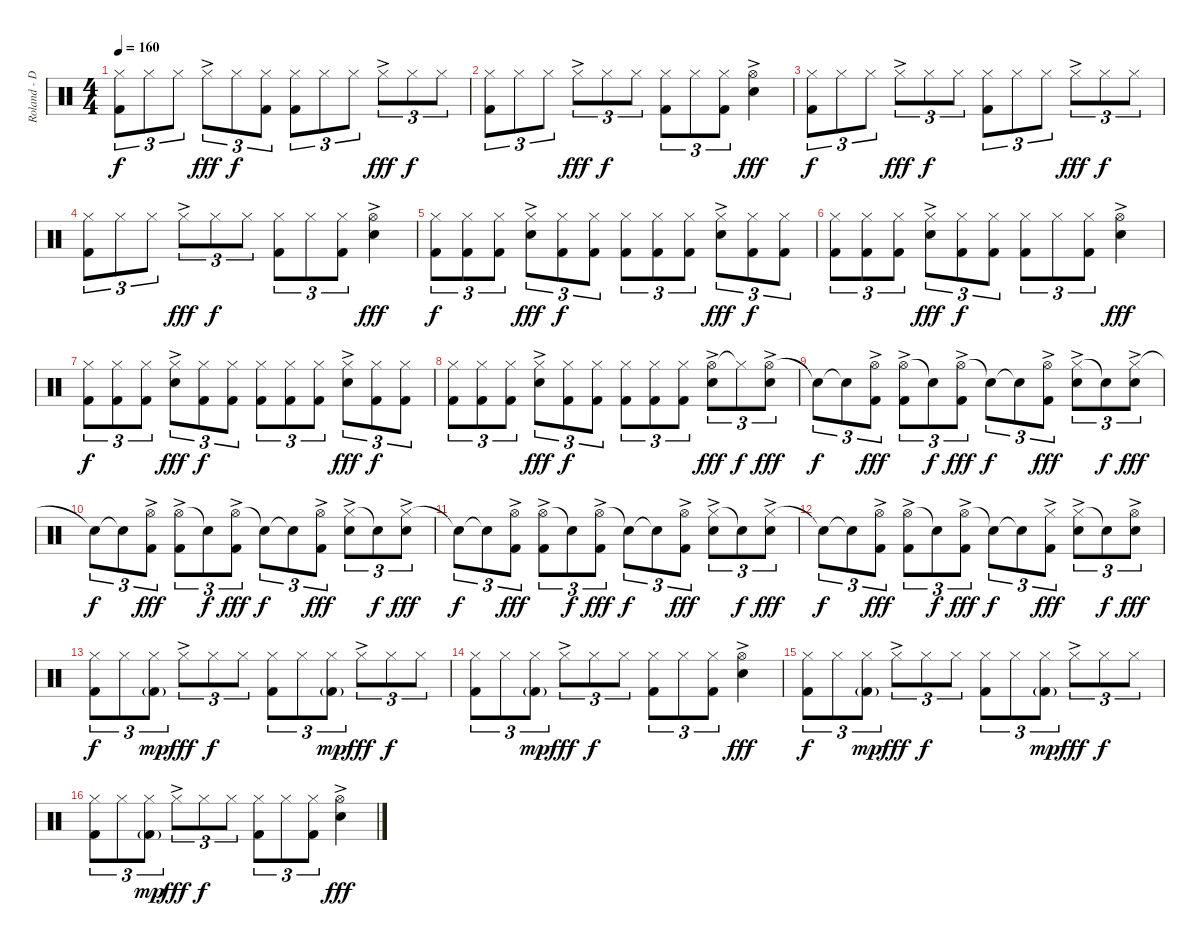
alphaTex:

\track ("Roland - Drums" "Roland - D") {instrument percussion}
\staff {score}
\articulation defaults
\ts (4 4)
\tempo 160
\clef neutral
\ks c
("Hi-Hat (closed)" "Kick (hit) 2").8{tu (3 2) dy f} "Hi-Hat (closed)".8{tu (3 2)} "Hi-Hat (closed)".8{tu (3 2)} "Hi-Hat (closed)"{ac}.8{tu (3 2) dy fff} "Hi-Hat (closed)".8{tu (3 2) dy f} ("Hi-Hat (closed)" "Kick (hit) 2").8{tu (3 2)} ("Hi-Hat (closed)" "Kick (hit) 2").8{tu (3 2)} "Hi-Hat (closed)".8{tu (3 2)} "Hi-Hat (closed)".8{tu (3 2)} "Hi-Hat (closed)"{ac}.8{tu (3 2) dy fff} "Hi-Hat (closed)".8{tu (3 2) dy f} "Hi-Hat (closed)".8{tu (3 2)} |
("Hi-Hat (closed)" "Kick (hit) 2").8{tu (3 2)} "Hi-Hat (closed)".8{tu (3 2)} "Hi-Hat (closed)".8{tu (3 2)} "Hi-Hat (closed)"{ac}.8{tu (3 2) dy fff} "Hi-Hat (closed)".8{tu (3 2) dy f} "Hi-Hat (closed)".8{tu (3 2)} ("Hi-Hat (closed)" "Kick (hit) 2").8{tu (3 2)} "Hi-Hat (closed)".8{tu (3 2)} ("Hi-Hat (closed)" "Kick (hit) 2").8{tu (3 2)} ("Hi-Hat (open)"{ac} "Snare (hit) 2").4{dy fff} |
("Hi-Hat (closed)" "Kick (hit) 2").8{tu (3 2) dy f} "Hi-Hat (closed)".8{tu (3 2)} "Hi-Hat (closed)".8{tu (3 2)} "Hi-Hat (closed)"{ac}.8{tu (3 2) dy fff} "Hi-Hat (closed)".8{tu (3 2) dy f} "Hi-Hat (closed)".8{tu (3 2)} ("Hi-Hat (closed)" "Kick (hit) 2").8{tu (3 2)} "Hi-Hat (closed)".8{tu (3 2)} "Hi-Hat (closed)".8{tu (3 2)} "Hi-Hat (closed)"{ac}.8{tu (3 2) dy fff} "Hi-Hat (closed)".8{tu (3 2) dy f} "Hi-Hat (closed)".8{tu (3 2)} |
("Hi-Hat (closed)" "Kick (hit) 2").8{tu (3 2)} "Hi-Hat (closed)".8{tu (3 2)} "Hi-Hat (closed)".8{tu (3 2)} "Hi-Hat (closed)"{ac}.8{tu (3 2) dy fff} "Hi-Hat (closed)".8{tu (3 2) dy f} "Hi-Hat (closed)".8{tu (3 2)} ("Hi-Hat (closed)" "Kick (hit) 2").8{tu (3 2)} "Hi-Hat (closed)".8{tu (3 2)} ("Hi-Hat (closed)" "Kick (hit) 2").8{tu (3 2)} ("Hi-Hat (open)"{ac} "Snare (hit) 2").4{dy fff} |
("Hi-Hat (closed)" "Kick (hit) 2").8{tu (3 2) dy f} ("Hi-Hat (closed)" "Kick (hit) 2").8{tu (3 2)} ("Hi-Hat (closed)" "Kick (hit) 2").8{tu (3 2)} ("Hi-Hat (closed)"{ac} "Snare (hit) 2").8{tu (3 2) dy fff} ("Hi-Hat (closed)" "Kick (hit) 2").8{tu (3 2) dy f} ("Hi-Hat (closed)" "Kick (hit) 2").8{tu (3 2)} ("Hi-Hat (closed)" "Kick (hit) 2").8{tu (3 2)} ("Hi-Hat (closed)" "Kick (hit) 2").8{tu (3 2)} ("Hi-Hat (closed)" "Kick (hit) 2").8{tu (3 2)} ("Hi-Hat (closed)"{ac} "Snare (hit) 2").8{tu (3 2) dy fff} ("Hi-Hat (closed)" "Kick (hit) 2").8{tu (3 2) dy f} ("Hi-Hat (closed)" "Kick (hit) 2").8{tu (3 2)} |
("Hi-Hat (closed)" "Kick (hit) 2").8{tu (3 2)} ("Hi-Hat (closed)" "Kick (hit) 2").8{tu (3 2)} ("Hi-Hat (closed)" "Kick (hit) 2").8{tu (3 2)} ("Hi-Hat (closed)"{ac} "Snare (hit) 2").8{tu (3 2) dy fff} ("Hi-Hat (closed)" "Kick (hit) 2").8{tu (3 2) dy f} ("Hi-Hat (closed)" "Kick (hit) 2").8{tu (3 2)} ("Hi-Hat (closed)" "Kick (hit) 2").8{tu (3 2)} "Hi-Hat (closed)".8{tu (3 2)} ("Hi-Hat (closed)" "Kick (hit) 2").8{tu (3 2)} ("Hi-Hat (open)"{ac} "Snare (hit) 2").4{dy fff} |
("Hi-Hat (closed)" "Kick (hit) 2").8{tu (3 2) dy f} ("Hi-Hat (closed)" "Kick (hit) 2").8{tu (3 2)} ("Hi-Hat (closed)" "Kick (hit) 2").8{tu (3 2)} ("Hi-Hat (closed)"{ac} "Snare (hit) 2").8{tu (3 2) dy fff} ("Hi-Hat (closed)" "Kick (hit) 2").8{tu (3 2) dy f} ("Hi-Hat (closed)" "Kick (hit) 2").8{tu (3 2)} ("Hi-Hat (closed)" "Kick (hit) 2").8{tu (3 2)} ("Hi-Hat (closed)" "Kick (hit) 2").8{tu (3 2)} ("Hi-Hat (closed)" "Kick (hit) 2").8{tu (3 2)} ("Hi-Hat (closed)"{ac} "Snare (hit) 2").8{tu (3 2) dy fff} ("Hi-Hat (closed)" "Kick (hit) 2").8{tu (3 2) dy f} ("Hi-Hat (closed)" "Kick (hit) 2").8{tu (3 2)} |
("Hi-Hat (closed)" "Kick (hit) 2").8{tu (3 2)} ("Hi-Hat (closed)" "Kick (hit) 2").8{tu (3 2)} ("Hi-Hat (closed)" "Kick (hit) 2").8{tu (3 2)} ("Hi-Hat (closed)"{ac} "Snare (hit) 2").8{tu (3 2) dy fff} ("Hi-Hat (closed)" "Kick (hit) 2").8{tu (3 2) dy f} ("Hi-Hat (closed)" "Kick (hit) 2").8{tu (3 2)} ("Hi-Hat (closed)" "Kick (hit) 2").8{tu (3 2)} ("Hi-Hat (closed)" "Kick (hit) 2").8{tu (3 2)} ("Hi-Hat (closed)" "Kick (hit) 2").8{tu (3 2)} ("Hi-Hat (open)"{ac} "Snare (hit) 2").8{tu (3 2) dy fff} "Hi-Hat (closed)"{t}.8{tu (3 2) dy f} ("Hi-Hat (open)"{ac} "Snare (hit) 2").8{tu (3 2) dy fff} |
"Snare (hit)"{t}.8{tu (3 2) dy f} "Snare (hit)"{t}.8{tu (3 2)} ("Hi-Hat (open)"{ac} "Kick (hit) 2").8{tu (3 2) dy fff} ("Hi-Hat (open)"{ac} "Kick (hit) 2").8{tu (3 2)} "Snare (hit)"{t}.8{tu (3 2) dy f} ("Hi-Hat (open)"{ac} "Kick (hit) 2").8{tu (3 2) dy fff} "Snare (hit)"{t}.8{tu (3 2) dy f} "Snare (hit)"{t}.8{tu (3 2)} ("Hi-Hat (open)"{ac} "Kick (hit) 2").8{tu (3 2) dy fff} ("Hi-Hat (closed)"{ac} "Snare (hit) 2").8{tu (3 2)} "Snare (hit)"{t}.8{tu (3 2) dy f} ("Hi-Hat (closed)"{ac} "Snare (hit) 2").8{tu (3 2) dy fff} |
"Snare (hit)"{t}.8{tu (3 2) dy f} "Snare (hit)"{t}.8{tu (3 2)} ("Hi-Hat (open)"{ac} "Kick (hit) 2").8{tu (3 2) dy fff} ("Hi-Hat (open)"{ac} "Kick (hit) 2").8{tu (3 2)} "Snare (hit)"{t}.8{tu (3 2) dy f} ("Hi-Hat (open)"{ac} "Kick (hit) 2").8{tu (3 2) dy fff} "Snare (hit)"{t}.8{tu (3 2) dy f} "Snare (hit)"{t}.8{tu (3 2)} ("Hi-Hat (open)"{ac} "Kick (hit) 2").8{tu (3 2) dy fff} ("Hi-Hat (closed)"{ac} "Snare (hit) 2").8{tu (3 2)} "Snare (hit)"{t}.8{tu (3 2) dy f} ("Hi-Hat (closed)"{ac} "Snare (hit) 2").8{tu (3 2) dy fff} |
"Snare (hit)"{t}.8{tu (3 2) dy f} "Snare (hit)"{t}.8{tu (3 2)} ("Hi-Hat (open)"{ac} "Kick (hit) 2").8{tu (3 2) dy fff} ("Hi-Hat (open)"{ac} "Kick (hit) 2").8{tu (3 2)} "Snare (hit)"{t}.8{tu (3 2) dy f} ("Hi-Hat (open)"{ac} "Kick (hit) 2").8{tu (3 2) dy fff} "Snare (hit)"{t}.8{tu (3 2) dy f} "Snare (hit)"{t}.8{tu (3 2)} ("Hi-Hat (open)"{ac} "Kick (hit) 2").8{tu (3 2) dy fff} ("Hi-Hat (closed)"{ac} "Snare (hit) 2").8{tu (3 2)} "Snare (hit)"{t}.8{tu (3 2) dy f} ("Hi-Hat (closed)"{ac} "Snare (hit) 2").8{tu (3 2) dy fff} |
"Snare (hit)"{t}.8{tu (3 2) dy f} "Snare (hit)"{t}.8{tu (3 2)} ("Hi-Hat (open)"{ac} "Kick (hit) 2").8{tu (3 2) dy fff} ("Hi-Hat (open)"{ac} "Kick (hit) 2").8{tu (3 2)} "Snare (hit)"{t}.8{tu (3 2) dy f} ("Hi-Hat (open)"{ac} "Kick (hit) 2").8{tu (3 2) dy fff} "Snare (hit)"{t}.8{tu (3 2) dy f} "Snare (hit)"{t}.8{tu (3 2)} ("Hi-Hat (closed)"{ac} "Kick (hit) 2").8{tu (3 2) dy fff} ("Hi-Hat (closed)"{ac} "Snare (hit) 2").8{tu (3 2)} "Snare (hit)"{t}.8{tu (3 2) dy f} ("Hi-Hat (open)"{ac} "Snare (hit) 2").8{tu (3 2) dy fff} |
("Hi-Hat (closed)" "Kick (hit) 2").8{tu (3 2) dy f} "Hi-Hat (closed)".8{tu (3 2)} ("Hi-Hat (closed)" "Kick (hit) 2"{g}).8{tu (3 2) dy mp} "Hi-Hat (closed)"{ac}.8{tu (3 2) dy fff} "Hi-Hat (closed)".8{tu (3 2) dy f} "Hi-Hat (closed)".8{tu (3 2)} ("Hi-Hat (closed)" "Kick (hit) 2").8{tu (3 2)} "Hi-Hat (closed)".8{tu (3 2)} ("Hi-Hat (closed)" "Kick (hit) 2"{g}).8{tu (3 2) dy mp} "Hi-Hat (closed)"{ac}.8{tu (3 2) dy fff} "Hi-Hat (closed)".8{tu (3 2) dy f} "Hi-Hat (closed)".8{tu (3 2)} |
("Hi-Hat (closed)" "Kick (hit) 2").8{tu (3 2)} "Hi-Hat (closed)".8{tu (3 2)} ("Hi-Hat (closed)" "Kick (hit) 2"{g}).8{tu (3 2) dy mp} "Hi-Hat (closed)"{ac}.8{tu (3 2) dy fff} "Hi-Hat (closed)".8{tu (3 2) dy f} "Hi-Hat (closed)".8{tu (3 2)} ("Hi-Hat (closed)" "Kick (hit) 2").8{tu (3 2)} "Hi-Hat (closed)".8{tu (3 2)} ("Hi-Hat (closed)" "Kick (hit) 2").8{tu (3 2)} ("Hi-Hat (open)"{ac} "Snare (hit) 2").4{dy fff} |
("Hi-Hat (closed)" "Kick (hit) 2").8{tu (3 2) dy f} "Hi-Hat (closed)".8{tu (3 2)} ("Hi-Hat (closed)" "Kick (hit) 2"{g}).8{tu (3 2) dy mp} "Hi-Hat (closed)"{ac}.8{tu (3 2) dy fff} "Hi-Hat (closed)".8{tu (3 2) dy f} "Hi-Hat (closed)".8{tu (3 2)} ("Hi-Hat (closed)" "Kick (hit) 2").8{tu (3 2)} "Hi-Hat (closed)".8{tu (3 2)} ("Hi-Hat (closed)" "Kick (hit) 2"{g}).8{tu (3 2) dy mp} "Hi-Hat (closed)"{ac}.8{tu (3 2) dy fff} "Hi-Hat (closed)".8{tu (3 2) dy f} "Hi-Hat (closed)".8{tu (3 2)} |
("Hi-Hat (closed)" "Kick (hit) 2").8{tu (3 2)} "Hi-Hat (closed)".8{tu (3 2)} ("Hi-Hat (closed)" "Kick (hit) 2"{g}).8{tu (3 2) dy mp} "Hi-Hat (closed)"{ac}.8{tu (3 2) dy fff} "Hi-Hat (closed)".8{tu (3 2) dy f} "Hi-Hat (closed)".8{tu (3 2)} ("Hi-Hat (closed)" "Kick (hit) 2").8{tu (3 2)} "Hi-Hat (closed)".8{tu (3 2)} ("Hi-Hat (closed)" "Kick (hit) 2").8{tu (3 2)} ("Hi-Hat (open)"{ac} "Snare (hit) 2").4{dy fff}
